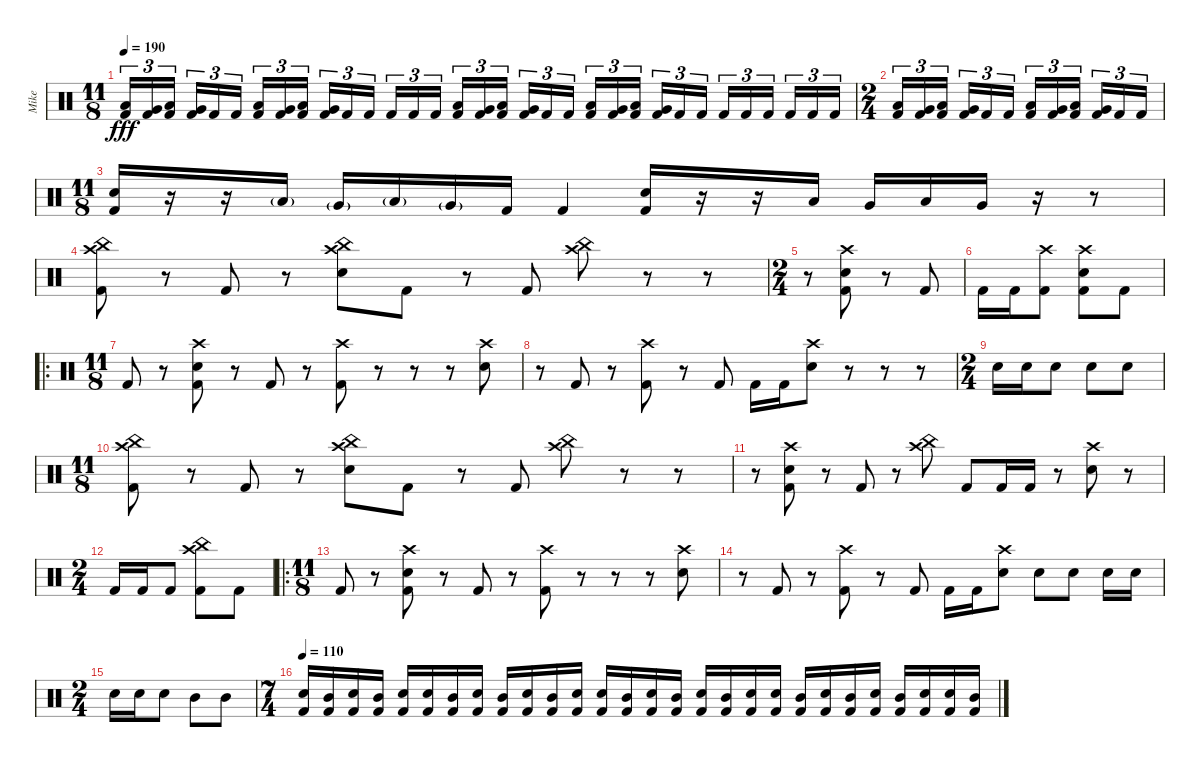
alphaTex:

\track ("Mike" "Mike") {instrument percussion}
\staff {score}
\articulation defaults
\ts (11 8)
\tempo 190
\clef neutral
\ks c
("Low Tom (hit)" "Kick (hit) 2").16{tu (3 2) dy fff} ("Very Low Tom (hit)" "Kick (hit) 2").16{tu (3 2)} ("Low Tom (hit)" "Kick (hit) 2").16{tu (3 2)} ("Very Low Tom (hit)" "Kick (hit) 2").16{tu (3 2)} "Kick (hit) 2".16{tu (3 2)} "Kick (hit) 2".16{tu (3 2)} ("Low Tom (hit)" "Kick (hit) 2").16{tu (3 2)} ("Very Low Tom (hit)" "Kick (hit) 2").16{tu (3 2)} ("Low Tom (hit)" "Kick (hit) 2").16{tu (3 2)} ("Very Low Tom (hit)" "Kick (hit) 2").16{tu (3 2)} "Kick (hit) 2".16{tu (3 2)} "Kick (hit) 2".16{tu (3 2)} "Kick (hit) 2".16{tu (3 2)} "Kick (hit) 2".16{tu (3 2)} "Kick (hit) 2".16{tu (3 2)} ("Low Tom (hit)" "Kick (hit) 2").16{tu (3 2)} ("Very Low Tom (hit)" "Kick (hit) 2").16{tu (3 2)} ("Low Tom (hit)" "Kick (hit) 2").16{tu (3 2)} ("Very Low Tom (hit)" "Kick (hit) 2").16{tu (3 2)} "Kick (hit) 2".16{tu (3 2)} "Kick (hit) 2".16{tu (3 2)} ("Low Tom (hit)" "Kick (hit) 2").16{tu (3 2)} ("Very Low Tom (hit)" "Kick (hit) 2").16{tu (3 2)} ("Low Tom (hit)" "Kick (hit) 2").16{tu (3 2)} ("Very Low Tom (hit)" "Kick (hit) 2").16{tu (3 2)} "Kick (hit) 2".16{tu (3 2)} "Kick (hit) 2".16{tu (3 2)} "Kick (hit) 2".16{tu (3 2)} "Kick (hit) 2".16{tu (3 2)} "Kick (hit) 2".16{tu (3 2)} "Kick (hit) 2".16{tu (3 2)} "Kick (hit) 2".16{tu (3 2)} "Kick (hit) 2".16{tu (3 2)} |
\ts (2 4)
("Low Tom (hit)" "Kick (hit) 2").16{tu (3 2)} ("Very Low Tom (hit)" "Kick (hit) 2").16{tu (3 2)} ("Low Tom (hit)" "Kick (hit) 2").16{tu (3 2) beam splitsecondary} ("Very Low Tom (hit)" "Kick (hit) 2").16{tu (3 2)} "Kick (hit) 2".16{tu (3 2)} "Kick (hit) 2".16{tu (3 2)} ("Low Tom (hit)" "Kick (hit) 2").16{tu (3 2)} ("Very Low Tom (hit)" "Kick (hit) 2").16{tu (3 2)} ("Low Tom (hit)" "Kick (hit) 2").16{tu (3 2) beam splitsecondary} ("Very Low Tom (hit)" "Kick (hit) 2").16{tu (3 2)} "Kick (hit) 2".16{tu (3 2)} "Kick (hit) 2".16{tu (3 2)} |
\ts (11 8)
("Electric Snare (hit)" "Kick (hit) 2").16 r.16 r.16 "Low Tom (hit)"{g}.16 "Very Low Tom (hit)"{g}.16 "Low Tom (hit)"{g}.16 "Very Low Tom (hit)"{g}.16 "Kick (hit) 2".16 "Kick (hit) 2".4 ("Electric Snare (hit)" "Kick (hit) 2").16 r.16 r.16 "Low Tom (hit)".16 "Very Low Tom (hit)".16 "Low Tom (hit)".16 "Very Low Tom (hit)".16 r.16 r.8 |
("Crash high (hit)" "China (hit)" "Kick (hit) 2").8 r.8 "Kick (hit) 2".8 r.8 ("China (hit)" "Crash high (hit)" "Electric Snare (hit)").8 "Kick (hit) 2".8 r.8 "Kick (hit) 2".8 ("China (hit)" "Crash high (hit)").8 r.8 r.8 |
\ts (2 4)
r.8 ("Crash high (hit)" "Electric Snare (hit)" "Kick (hit) 2").8 r.8 "Kick (hit) 2".8 |
"Kick (hit) 2".16 "Kick (hit) 2".16 ("Crash high (hit)" "Kick (hit) 2").8 ("Crash high (hit)" "Electric Snare (hit)" "Kick (hit) 2").8 "Kick (hit) 2".8 |
\ro
\ts (11 8)
"Kick (hit) 2".8 r.8 ("Crash high (hit)" "Electric Snare (hit)" "Kick (hit) 2").8 r.8 "Kick (hit) 2".8 r.8 ("Crash high (hit)" "Kick (hit) 2").8 r.8 r.8 r.8 ("Crash high (hit)" "Electric Snare (hit)").8 |
r.8 "Kick (hit) 2".8 r.8 ("Crash high (hit)" "Kick (hit) 2").8 r.8 "Kick (hit) 2".8 "Kick (hit) 2".16 "Kick (hit) 2".16 ("Crash high (hit)" "Electric Snare (hit)").8 r.8 r.8 r.8 |
\ts (2 4)
"Electric Snare (hit)".16 "Electric Snare (hit)".16 "Electric Snare (hit)".8 "Electric Snare (hit)".8 "Electric Snare (hit)".8 |
\ts (11 8)
("Crash high (hit)" "China (hit)" "Kick (hit) 2").8 r.8 "Kick (hit) 2".8 r.8 ("China (hit)" "Crash high (hit)" "Electric Snare (hit)").8 "Kick (hit) 2".8 r.8 "Kick (hit) 2".8 ("China (hit)" "Crash high (hit)").8 r.8 r.8 |
r.8 ("Crash high (hit)" "Electric Snare (hit)" "Kick (hit) 2").8 r.8 "Kick (hit) 2".8 r.8 ("China (hit)" "Crash high (hit)").8 "Kick (hit) 2".8 "Kick (hit) 2".16 "Kick (hit) 2".16 r.8 ("Crash high (hit)" "Electric Snare (hit)").8 r.8 |
\ts (2 4)
"Kick (hit) 2".16 "Kick (hit) 2".16 "Kick (hit) 2".8 ("Crash high (hit)" "China (hit)" "Kick (hit) 2").8 "Kick (hit) 2".8 |
\ro
\ts (11 8)
"Kick (hit) 2".8 r.8 ("Crash high (hit)" "Electric Snare (hit)" "Kick (hit) 2").8 r.8 "Kick (hit) 2".8 r.8 ("Crash high (hit)" "Kick (hit) 2").8 r.8 r.8 r.8 ("Crash high (hit)" "Electric Snare (hit)").8 |
r.8 "Kick (hit) 2".8 r.8 ("Crash high (hit)" "Kick (hit) 2").8 r.8 "Kick (hit) 2".8 "Kick (hit) 2".16 "Kick (hit) 2".16 ("Crash high (hit)" "Electric Snare (hit)").8 "Electric Snare (hit)".8 "Electric Snare (hit)".8 "Electric Snare (hit)".16 "Electric Snare (hit)".16 |
\ts (2 4)
"Electric Snare (hit)".16 "Electric Snare (hit)".16 "Electric Snare (hit)".8 "Mid Tom (hit)".8 "Mid Tom (hit)".8 |
\ts (7 4)
\tempo 110
("Electric Snare (hit)" "Kick (hit) 2").16 ("Mid Tom (hit)" "Kick (hit) 2").16 ("Electric Snare (hit)" "Kick (hit) 2").16 ("Mid Tom (hit)" "Kick (hit) 2").16 ("Electric Snare (hit)" "Kick (hit) 2").16 ("Electric Snare (hit)" "Kick (hit) 2").16 ("Mid Tom (hit)" "Kick (hit) 2").16 ("Electric Snare (hit)" "Kick (hit) 2").16 ("Mid Tom (hit)" "Kick (hit) 2").16 ("Electric Snare (hit)" "Kick (hit) 2").16 ("Mid Tom (hit)" "Kick (hit) 2").16 ("Electric Snare (hit)" "Kick (hit) 2").16 ("Electric Snare (hit)" "Kick (hit) 2").16 ("Mid Tom (hit)" "Kick (hit) 2").16 ("Electric Snare (hit)" "Kick (hit) 2").16 ("Mid Tom (hit)" "Kick (hit) 2").16 ("Electric Snare (hit)" "Kick (hit) 2").16 ("Mid Tom (hit)" "Kick (hit) 2").16 ("Electric Snare (hit)" "Kick (hit) 2").16 ("Electric Snare (hit)" "Kick (hit) 2").16 ("Mid Tom (hit)" "Kick (hit) 2").16 ("Electric Snare (hit)" "Kick (hit) 2").16 ("Mid Tom (hit)" "Kick (hit) 2").16 ("Electric Snare (hit)" "Kick (hit) 2").16 ("Mid Tom (hit)" "Kick (hit) 2").16 ("Electric Snare (hit)" "Kick (hit) 2").16 ("Electric Snare (hit)" "Kick (hit) 2").16 ("Mid Tom (hit)" "Kick (hit) 2").16
